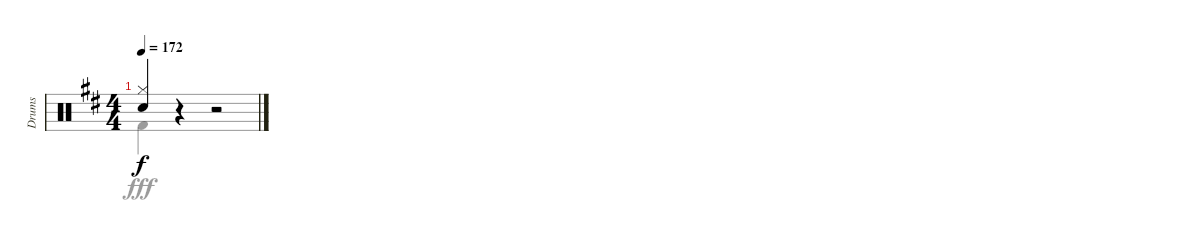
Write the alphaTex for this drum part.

\track ("Drums" "Drums") {instrument percussion}
\staff {score}
\articulation defaults
\voice
\ts (4 4)
\tempo 172
\clef neutral
\ks d
("Hi-Hat (closed)" "Snare (hit) 2").4{dy f} r.4 r.2
\voice
\clef neutral
\ottava regular
\simile none
\ks d "Kick (hit) 2".4{dy fff}
r.4 r.2
